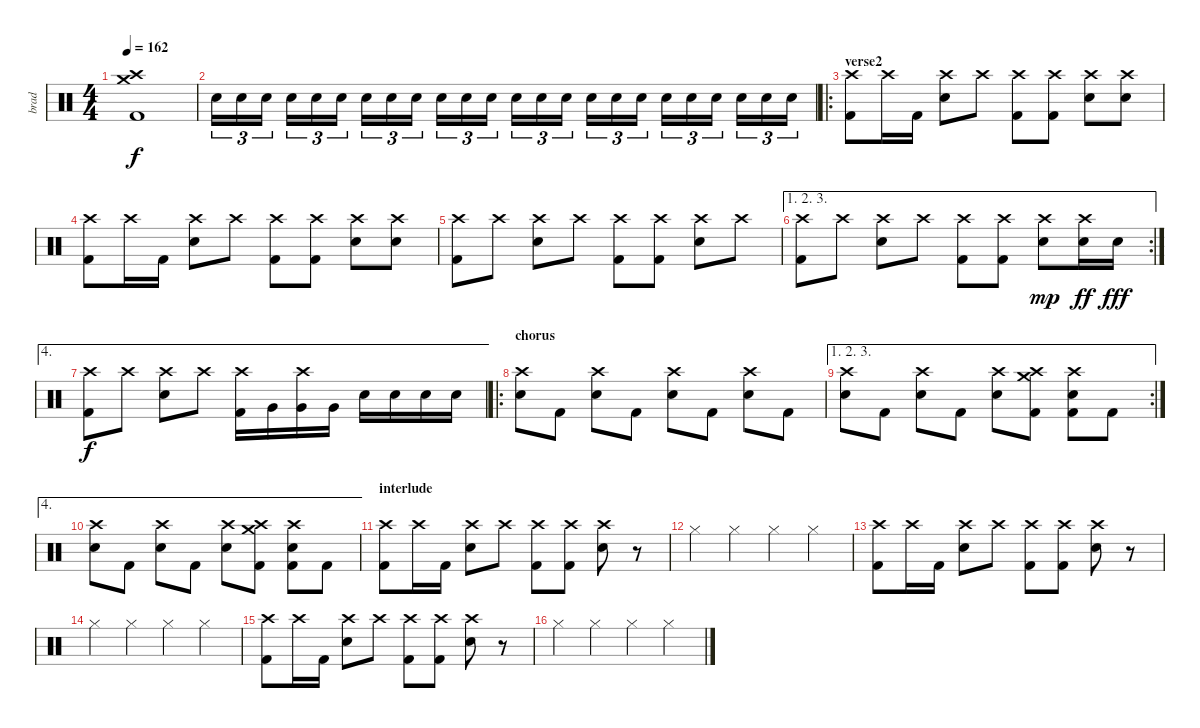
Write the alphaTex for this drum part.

\track ("brad" "brad") {instrument percussion}
\staff {score}
\articulation defaults
\ts (4 4)
\tempo 162
\clef neutral
\ks c
("Crash medium (hit)" "Crash high (hit)" "Kick (hit) 2").1{dy f} |
"Electric Snare (hit)".16{tu (3 2)} "Electric Snare (hit)".16{tu (3 2)} "Electric Snare (hit)".16{tu (3 2)} "Electric Snare (hit)".16{tu (3 2)} "Electric Snare (hit)".16{tu (3 2)} "Electric Snare (hit)".16{tu (3 2)} "Electric Snare (hit)".16{tu (3 2)} "Electric Snare (hit)".16{tu (3 2)} "Electric Snare (hit)".16{tu (3 2)} "Electric Snare (hit)".16{tu (3 2)} "Electric Snare (hit)".16{tu (3 2)} "Electric Snare (hit)".16{tu (3 2)} "Electric Snare (hit)".16{tu (3 2)} "Electric Snare (hit)".16{tu (3 2)} "Electric Snare (hit)".16{tu (3 2)} "Electric Snare (hit)".16{tu (3 2)} "Electric Snare (hit)".16{tu (3 2)} "Electric Snare (hit)".16{tu (3 2)} "Electric Snare (hit)".16{tu (3 2)} "Electric Snare (hit)".16{tu (3 2)} "Electric Snare (hit)".16{tu (3 2)} "Electric Snare (hit)".16{tu (3 2)} "Electric Snare (hit)".16{tu (3 2)} "Electric Snare (hit)".16{tu (3 2)} |
\ro
\section ("" "verse2")
("Crash high (hit)" "Kick (hit) 2").8 "Crash high (hit)".16 "Kick (hit) 2".16 ("Crash high (hit)" "Electric Snare (hit)").8 "Crash high (hit)".8 ("Crash high (hit)" "Kick (hit) 2").8 ("Crash high (hit)" "Kick (hit) 2").8 ("Crash high (hit)" "Electric Snare (hit)").8 ("Crash high (hit)" "Electric Snare (hit)").8 |
("Crash high (hit)" "Kick (hit) 2").8 "Crash high (hit)".16 "Kick (hit) 2".16 ("Crash high (hit)" "Electric Snare (hit)").8 "Crash high (hit)".8 ("Crash high (hit)" "Kick (hit) 2").8 ("Crash high (hit)" "Kick (hit) 2").8 ("Crash high (hit)" "Electric Snare (hit)").8 ("Crash high (hit)" "Electric Snare (hit)").8 |
("Crash high (hit)" "Kick (hit) 2").8 "Crash high (hit)".8 ("Crash high (hit)" "Electric Snare (hit)").8 "Crash high (hit)".8 ("Crash high (hit)" "Kick (hit) 2").8 ("Crash high (hit)" "Kick (hit) 2").8 ("Crash high (hit)" "Electric Snare (hit)").8 "Crash high (hit)".8 |
\ae (1 2 3)
\rc 2
("Crash high (hit)" "Kick (hit) 2").8 "Crash high (hit)".8 ("Crash high (hit)" "Electric Snare (hit)").8 "Crash high (hit)".8 ("Crash high (hit)" "Kick (hit) 2").8 ("Crash high (hit)" "Kick (hit) 2").8 ("Crash high (hit)" "Electric Snare (hit)").8{dy mp} ("Crash high (hit)" "Electric Snare (hit)").16{dy ff} "Electric Snare (hit)".16{dy fff} |
\ae 4
("Crash high (hit)" "Kick (hit) 2").8{dy f} "Crash high (hit)".8 ("Crash high (hit)" "Electric Snare (hit)").8 "Crash high (hit)".8 ("Crash high (hit)" "Kick (hit) 2").16 "Very Low Tom (hit)".16 ("Crash high (hit)" "Very Low Tom (hit)").16 "Very Low Tom (hit)".16 "Electric Snare (hit)".16 "Electric Snare (hit)".16 "Electric Snare (hit)".16 "Electric Snare (hit)".16 |
\ro
\section ("" "chorus")
("Crash high (hit)" "Electric Snare (hit)").8 "Kick (hit) 2".8 ("Crash high (hit)" "Electric Snare (hit)").8 "Kick (hit) 2".8 ("Crash high (hit)" "Electric Snare (hit)").8 "Kick (hit) 2".8 ("Crash high (hit)" "Electric Snare (hit)").8 "Kick (hit) 2".8 |
\ae (1 2 3)
\rc 2
("Crash high (hit)" "Electric Snare (hit)").8 "Kick (hit) 2".8 ("Crash high (hit)" "Electric Snare (hit)").8 "Kick (hit) 2".8 ("Crash high (hit)" "Electric Snare (hit)").8 ("Crash medium (hit)" "Crash high (hit)" "Kick (hit) 2").8 ("Crash high (hit)" "Electric Snare (hit)" "Kick (hit) 2").8 "Kick (hit) 2".8 |
\ae 4
("Crash high (hit)" "Electric Snare (hit)").8 "Kick (hit) 2".8 ("Crash high (hit)" "Electric Snare (hit)").8 "Kick (hit) 2".8 ("Crash high (hit)" "Electric Snare (hit)").8 ("Crash medium (hit)" "Crash high (hit)" "Kick (hit) 2").8 ("Crash high (hit)" "Electric Snare (hit)" "Kick (hit) 2").8 "Kick (hit) 2".8 |
\section ("" "interlude")
("Crash high (hit)" "Kick (hit) 2").8 "Crash high (hit)".16 "Kick (hit) 2".16 ("Crash high (hit)" "Electric Snare (hit)").8 "Crash high (hit)".8 ("Crash high (hit)" "Kick (hit) 2").8 ("Crash high (hit)" "Kick (hit) 2").8 ("Crash high (hit)" "Electric Snare (hit)").8 r.8 |
"Hi-Hat (closed)".4 "Hi-Hat (closed)".4 "Hi-Hat (closed)".4 "Hi-Hat (closed)".4 |
("Crash high (hit)" "Kick (hit) 2").8 "Crash high (hit)".16 "Kick (hit) 2".16 ("Crash high (hit)" "Electric Snare (hit)").8 "Crash high (hit)".8 ("Crash high (hit)" "Kick (hit) 2").8 ("Crash high (hit)" "Kick (hit) 2").8 ("Crash high (hit)" "Electric Snare (hit)").8 r.8 |
"Hi-Hat (closed)".4 "Hi-Hat (closed)".4 "Hi-Hat (closed)".4 "Hi-Hat (closed)".4 |
("Crash high (hit)" "Kick (hit) 2").8 "Crash high (hit)".16 "Kick (hit) 2".16 ("Crash high (hit)" "Electric Snare (hit)").8 "Crash high (hit)".8 ("Crash high (hit)" "Kick (hit) 2").8 ("Crash high (hit)" "Kick (hit) 2").8 ("Crash high (hit)" "Electric Snare (hit)").8 r.8 |
"Hi-Hat (closed)".4 "Hi-Hat (closed)".4 "Hi-Hat (closed)".4 "Hi-Hat (closed)".4
